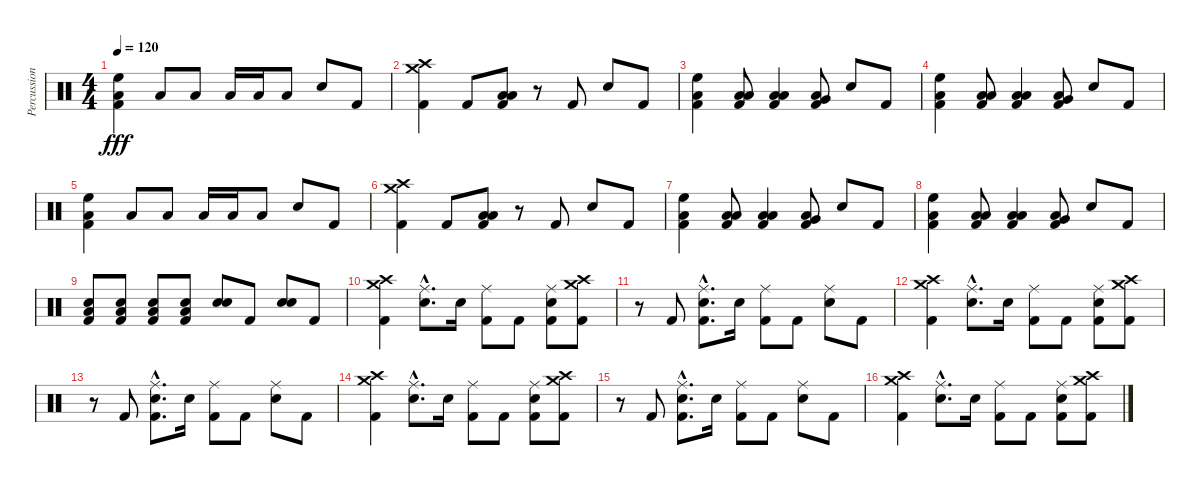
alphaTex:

\track ("Percussion" "Percussion") {instrument percussion}
\staff {score}
\articulation defaults
\ts (4 4)
\tempo 120
\clef neutral
\ks c
("High Floor Tom (hit)" "Low Tom (hit)" "Kick (hit) 2").4{dy fff} "Low Tom (hit)".8 "Low Tom (hit)".8 "Low Floor Tom (hit)".16 "Low Floor Tom (hit)".16 "Low Floor Tom (hit)".8 "Snare (hit) 2".8 "Kick (hit) 2".8 |
("Crash medium (hit)" "Crash high (hit)" "Kick (hit) 2").4 "Kick (hit) 2".8 ("Low Tom (hit)" "Low Floor Tom (hit)" "Kick (hit) 2").8 r.8 "Kick (hit) 2".8 "Snare (hit) 2".8 "Kick (hit) 2".8 |
("High Floor Tom (hit)" "Low Tom (hit)" "Kick (hit) 2").4 ("Low Floor Tom (hit)" "Low Tom (hit)" "Kick (hit) 2").8 ("Low Floor Tom (hit)" "Low Tom (hit)" "Kick (hit) 2").4 ("Low Floor Tom (hit)" "Very Low Tom (hit)" "Kick (hit) 2").8 "Snare (hit) 2".8 "Kick (hit) 2".8 |
("High Floor Tom (hit)" "Low Tom (hit)" "Kick (hit) 2").4 ("Low Floor Tom (hit)" "Low Tom (hit)" "Kick (hit) 2").8 ("Low Floor Tom (hit)" "Low Tom (hit)" "Kick (hit) 2").4 ("Low Floor Tom (hit)" "Very Low Tom (hit)" "Kick (hit) 2").8 "Snare (hit) 2".8 "Kick (hit) 2".8 |
("High Floor Tom (hit)" "Low Tom (hit)" "Kick (hit) 2").4 "Low Tom (hit)".8 "Low Tom (hit)".8 "Low Floor Tom (hit)".16 "Low Floor Tom (hit)".16 "Low Floor Tom (hit)".8 "Snare (hit) 2".8 "Kick (hit) 2".8 |
("Crash medium (hit)" "Crash high (hit)" "Kick (hit) 2").4 "Kick (hit) 2".8 ("Low Tom (hit)" "Low Floor Tom (hit)" "Kick (hit) 2").8 r.8 "Kick (hit) 2".8 "Snare (hit) 2".8 "Kick (hit) 2".8 |
("High Floor Tom (hit)" "Low Tom (hit)" "Kick (hit) 2").4 ("Low Floor Tom (hit)" "Low Tom (hit)" "Kick (hit) 2").8 ("Low Floor Tom (hit)" "Low Tom (hit)" "Kick (hit) 2").4 ("Low Floor Tom (hit)" "Very Low Tom (hit)" "Kick (hit) 2").8 "Snare (hit) 2".8 "Kick (hit) 2".8 |
("High Floor Tom (hit)" "Low Tom (hit)" "Kick (hit) 2").4 ("Low Floor Tom (hit)" "Low Tom (hit)" "Kick (hit) 2").8 ("Low Floor Tom (hit)" "Low Tom (hit)" "Kick (hit) 2").4 ("Low Floor Tom (hit)" "Very Low Tom (hit)" "Kick (hit) 2").8 "Snare (hit) 2".8 "Kick (hit) 2".8 |
("Low Floor Tom (hit)" "Snare (hit) 2" "Kick (hit) 2").8 ("Low Floor Tom (hit)" "Snare (hit) 2" "Kick (hit) 2").8 ("Low Floor Tom (hit)" "Snare (hit) 2" "Kick (hit) 2").8 ("Low Floor Tom (hit)" "Snare (hit) 2" "Kick (hit) 2").8 ("Snare (hit) 2" "Snare (hit) 2").8 "Kick (hit) 2".8 ("Snare (hit) 2" "Snare (hit) 2").8 "Kick (hit) 2".8 |
("Crash high (hit)" "Crash medium (hit)" "Kick (hit) 2").4 ("Ride (middle)"{hac} "Snare (hit) 2"{hac}).8{d} "Snare (hit) 2".16 ("Ride (middle)" "Kick (hit) 2").8 "Kick (hit) 2".8 ("Ride (middle)" "Snare (hit) 2" "Kick (hit) 2").8 ("Crash medium (hit)" "Crash high (hit)" "Kick (hit) 2").8 |
r.8 "Kick (hit) 2".8 ("Ride (middle)"{hac} "Snare (hit) 2"{hac} "Kick (hit) 2"{hac}).8{d} "Snare (hit) 2".16 ("Ride (middle)" "Kick (hit) 2").8 "Kick (hit) 2".8 ("Ride (middle)" "Snare (hit) 2").8 "Kick (hit) 2".8 |
("Crash high (hit)" "Crash medium (hit)" "Kick (hit) 2").4 ("Ride (middle)"{hac} "Snare (hit) 2"{hac}).8{d} "Snare (hit) 2".16 ("Ride (middle)" "Kick (hit) 2").8 "Kick (hit) 2".8 ("Ride (middle)" "Snare (hit) 2" "Kick (hit) 2").8 ("Crash medium (hit)" "Crash high (hit)" "Kick (hit) 2").8 |
r.8 "Kick (hit) 2".8 ("Ride (middle)"{hac} "Snare (hit) 2"{hac} "Kick (hit) 2"{hac}).8{d} "Snare (hit) 2".16 ("Ride (middle)" "Kick (hit) 2").8 "Kick (hit) 2".8 ("Ride (middle)" "Snare (hit) 2").8 "Kick (hit) 2".8 |
("Crash high (hit)" "Crash medium (hit)" "Kick (hit) 2").4 ("Ride (middle)"{hac} "Snare (hit) 2"{hac}).8{d} "Snare (hit) 2".16 ("Ride (middle)" "Kick (hit) 2").8 "Kick (hit) 2".8 ("Ride (middle)" "Snare (hit) 2" "Kick (hit) 2").8 ("Crash medium (hit)" "Crash high (hit)" "Kick (hit) 2").8 |
r.8 "Kick (hit) 2".8 ("Ride (middle)"{hac} "Snare (hit) 2"{hac} "Kick (hit) 2"{hac}).8{d} "Snare (hit) 2".16 ("Ride (middle)" "Kick (hit) 2").8 "Kick (hit) 2".8 ("Ride (middle)" "Snare (hit) 2").8 "Kick (hit) 2".8 |
("Crash high (hit)" "Crash medium (hit)" "Kick (hit) 2").4 ("Ride (middle)"{hac} "Snare (hit) 2"{hac}).8{d} "Snare (hit) 2".16 ("Ride (middle)" "Kick (hit) 2").8 "Kick (hit) 2".8 ("Ride (middle)" "Snare (hit) 2" "Kick (hit) 2").8 ("Crash medium (hit)" "Crash high (hit)" "Kick (hit) 2").8
